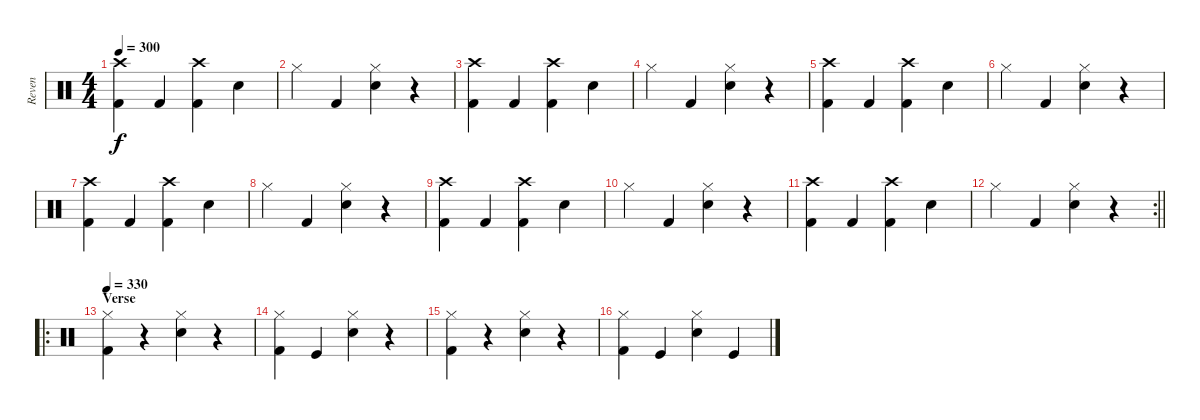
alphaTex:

\track ("Reven" "Reven") {instrument percussion}
\staff {score}
\articulation defaults
\ts (4 4)
\tempo 300
\clef neutral
\ks c
("Crash high (hit)" "Kick (hit) 2").4{dy f} "Kick (hit) 2".4 ("Crash high (hit)" "Kick (hit) 2").4 "Electric Snare (hit)".4 |
"Hi-Hat (closed)".4 "Kick (hit) 2".4 ("Hi-Hat (closed)" "Electric Snare (hit)").4 r.4 |
("Crash high (hit)" "Kick (hit) 2").4 "Kick (hit) 2".4 ("Crash high (hit)" "Kick (hit) 2").4 "Electric Snare (hit)".4 |
"Hi-Hat (closed)".4 "Kick (hit) 2".4 ("Hi-Hat (closed)" "Electric Snare (hit)").4 r.4 |
("Crash high (hit)" "Kick (hit) 2").4 "Kick (hit) 2".4 ("Crash high (hit)" "Kick (hit) 2").4 "Electric Snare (hit)".4 |
"Hi-Hat (closed)".4 "Kick (hit) 2".4 ("Hi-Hat (closed)" "Electric Snare (hit)").4 r.4 |
("Crash high (hit)" "Kick (hit) 2").4 "Kick (hit) 2".4 ("Crash high (hit)" "Kick (hit) 2").4 "Electric Snare (hit)".4 |
"Hi-Hat (closed)".4 "Kick (hit) 2".4 ("Hi-Hat (closed)" "Electric Snare (hit)").4 r.4 |
("Crash high (hit)" "Kick (hit) 2").4 "Kick (hit) 2".4 ("Crash high (hit)" "Kick (hit) 2").4 "Electric Snare (hit)".4 |
"Hi-Hat (closed)".4 "Kick (hit) 2".4 ("Hi-Hat (closed)" "Electric Snare (hit)").4 r.4 |
("Crash high (hit)" "Kick (hit) 2").4 "Kick (hit) 2".4 ("Crash high (hit)" "Kick (hit) 2").4 "Electric Snare (hit)".4 |
\rc 2
\barLineRight lightlight "Hi-Hat (closed)".4 "Kick (hit) 2".4
("Hi-Hat (closed)" "Electric Snare (hit)").4 r.4 |
\ro
\section ("" "Verse")
\tempo 330
("Hi-Hat (closed)" "Kick (hit) 2").4 r.4 ("Hi-Hat (closed)" "Electric Snare (hit)").4 r.4 |
("Hi-Hat (closed)" "Kick (hit) 2").4 "Kick (hit)".4 ("Hi-Hat (closed)" "Electric Snare (hit)").4 r.4 |
("Hi-Hat (closed)" "Kick (hit) 2").4 r.4 ("Hi-Hat (closed)" "Electric Snare (hit)").4 r.4 |
("Hi-Hat (closed)" "Kick (hit) 2").4 "Kick (hit)".4 ("Hi-Hat (closed)" "Electric Snare (hit)").4 "Kick (hit)".4
